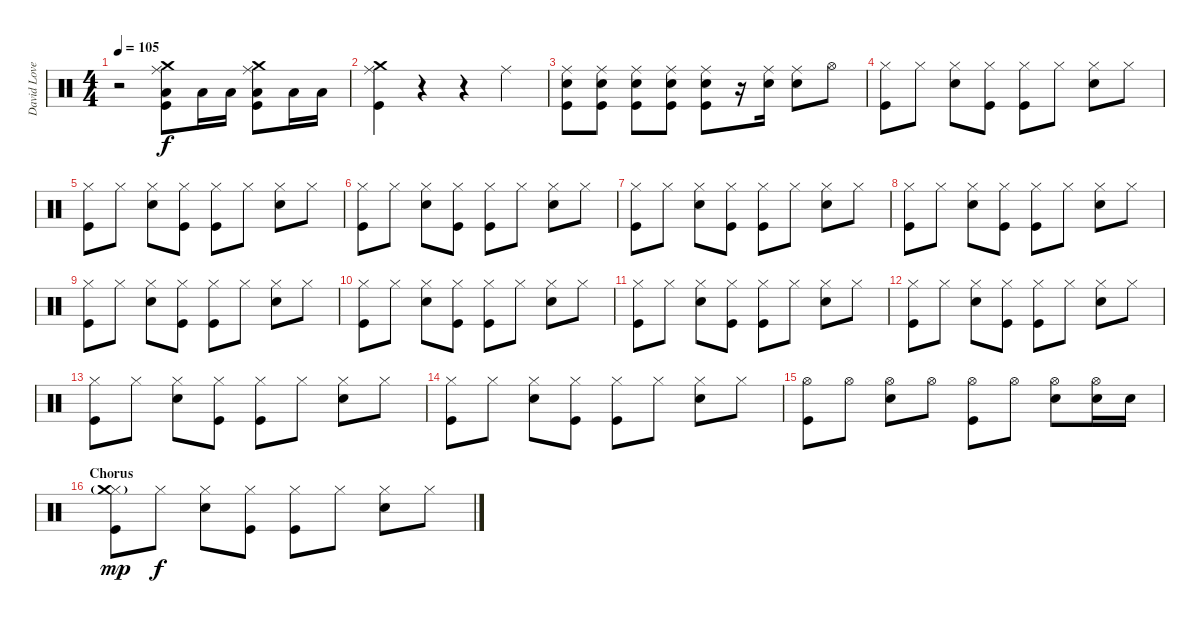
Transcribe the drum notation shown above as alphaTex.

\track ("David Lovering" "David Love") {instrument percussion}
\staff {score}
\articulation defaults
\ts (4 4)
\tempo 105
\clef neutral
\ks c
r.2{dy f} ("Ride (middle)" "Crash medium (hit)" "Low Floor Tom (hit)" "Kick (hit)").8 "Low Floor Tom (hit)".16 "Low Floor Tom (hit)".16 ("Ride (middle)" "Crash medium (hit)" "Low Floor Tom (hit)" "Kick (hit)").8 "Low Floor Tom (hit)".16 "Low Floor Tom (hit)".16 |
("Ride (middle)" "Crash medium (hit)" "Kick (hit)").4 r.4 r.4 "Ride (middle)".4 |
("Ride (middle)" "Snare (hit) 2" "Kick (hit)").8{volume 9} ("Ride (middle)" "Snare (hit) 2" "Kick (hit)").8 ("Ride (middle)" "Snare (hit) 2" "Kick (hit)").8{volume 13} ("Ride (middle)" "Snare (hit) 2" "Kick (hit)").8 ("Ride (middle)" "Snare (hit) 2" "Kick (hit)").8 r.16 ("Ride (middle)" "Snare (hit) 2").16 ("Ride (middle)" "Snare (hit) 2").8 "Hi-Hat (open)".8 |
("Hi-Hat (closed)" "Kick (hit)").8 "Hi-Hat (closed)".8 ("Hi-Hat (closed)" "Snare (hit) 2").8 ("Hi-Hat (closed)" "Kick (hit)").8 ("Hi-Hat (closed)" "Kick (hit)").8 "Hi-Hat (closed)".8 ("Hi-Hat (closed)" "Snare (hit) 2").8 "Hi-Hat (closed)".8 |
("Hi-Hat (closed)" "Kick (hit)").8 "Hi-Hat (closed)".8 ("Hi-Hat (closed)" "Snare (hit) 2").8 ("Hi-Hat (closed)" "Kick (hit)").8 ("Hi-Hat (closed)" "Kick (hit)").8 "Hi-Hat (closed)".8 ("Hi-Hat (closed)" "Snare (hit) 2").8 "Hi-Hat (closed)".8 |
("Hi-Hat (closed)" "Kick (hit)").8 "Hi-Hat (closed)".8 ("Hi-Hat (closed)" "Snare (hit) 2").8 ("Hi-Hat (closed)" "Kick (hit)").8 ("Hi-Hat (closed)" "Kick (hit)").8 "Hi-Hat (closed)".8 ("Hi-Hat (closed)" "Snare (hit) 2").8 "Hi-Hat (closed)".8 |
("Hi-Hat (closed)" "Kick (hit)").8 "Hi-Hat (closed)".8 ("Hi-Hat (closed)" "Snare (hit) 2").8 ("Hi-Hat (closed)" "Kick (hit)").8 ("Hi-Hat (closed)" "Kick (hit)").8 "Hi-Hat (closed)".8 ("Hi-Hat (closed)" "Snare (hit) 2").8 "Hi-Hat (closed)".8 |
("Hi-Hat (closed)" "Kick (hit)").8 "Hi-Hat (closed)".8 ("Hi-Hat (closed)" "Snare (hit) 2").8 ("Hi-Hat (closed)" "Kick (hit)").8 ("Hi-Hat (closed)" "Kick (hit)").8 "Hi-Hat (closed)".8 ("Hi-Hat (closed)" "Snare (hit) 2").8 "Hi-Hat (closed)".8 |
("Hi-Hat (closed)" "Kick (hit)").8 "Hi-Hat (closed)".8 ("Hi-Hat (closed)" "Snare (hit) 2").8 ("Hi-Hat (closed)" "Kick (hit)").8 ("Hi-Hat (closed)" "Kick (hit)").8 "Hi-Hat (closed)".8 ("Hi-Hat (closed)" "Snare (hit) 2").8 "Hi-Hat (closed)".8 |
("Hi-Hat (closed)" "Kick (hit)").8 "Hi-Hat (closed)".8 ("Hi-Hat (closed)" "Snare (hit) 2").8 ("Hi-Hat (closed)" "Kick (hit)").8 ("Hi-Hat (closed)" "Kick (hit)").8 "Hi-Hat (closed)".8 ("Hi-Hat (closed)" "Snare (hit) 2").8 "Hi-Hat (closed)".8 |
("Hi-Hat (closed)" "Kick (hit)").8 "Hi-Hat (closed)".8 ("Hi-Hat (closed)" "Snare (hit) 2").8 ("Hi-Hat (closed)" "Kick (hit)").8 ("Hi-Hat (closed)" "Kick (hit)").8 "Hi-Hat (closed)".8 ("Hi-Hat (closed)" "Snare (hit) 2").8 "Hi-Hat (closed)".8 |
("Hi-Hat (closed)" "Kick (hit)").8 "Hi-Hat (closed)".8 ("Hi-Hat (closed)" "Snare (hit) 2").8 ("Hi-Hat (closed)" "Kick (hit)").8 ("Hi-Hat (closed)" "Kick (hit)").8 "Hi-Hat (closed)".8 ("Hi-Hat (closed)" "Snare (hit) 2").8 "Hi-Hat (closed)".8 |
("Hi-Hat (closed)" "Kick (hit)").8 "Hi-Hat (closed)".8 ("Hi-Hat (closed)" "Snare (hit) 2").8 ("Hi-Hat (closed)" "Kick (hit)").8 ("Hi-Hat (closed)" "Kick (hit)").8 "Hi-Hat (closed)".8 ("Hi-Hat (closed)" "Snare (hit) 2").8 "Hi-Hat (closed)".8 |
("Hi-Hat (closed)" "Kick (hit)").8 "Hi-Hat (closed)".8 ("Hi-Hat (closed)" "Snare (hit) 2").8 ("Hi-Hat (closed)" "Kick (hit)").8 ("Hi-Hat (closed)" "Kick (hit)").8 "Hi-Hat (closed)".8 ("Hi-Hat (closed)" "Snare (hit) 2").8 "Hi-Hat (closed)".8 |
("Hi-Hat (open)" "Kick (hit)").8 "Hi-Hat (open)".8 ("Hi-Hat (open)" "Snare (hit) 2").8 "Hi-Hat (open)".8 ("Hi-Hat (open)" "Kick (hit)").8 "Hi-Hat (open)".8 ("Hi-Hat (open)" "Snare (hit) 2").8 ("Hi-Hat (open)" "Snare (hit) 2").16 "Snare (hit) 2".16 |
\section ("" "Chorus")
("Hi-Hat (closed)" "Crash medium (hit)"{g} "Kick (hit)").8{dy mp} "Hi-Hat (closed)".8{dy f} ("Hi-Hat (closed)" "Snare (hit) 2").8 ("Hi-Hat (closed)" "Kick (hit)").8 ("Hi-Hat (closed)" "Kick (hit)").8 "Hi-Hat (closed)".8 ("Hi-Hat (closed)" "Snare (hit) 2").8 "Hi-Hat (closed)".8
